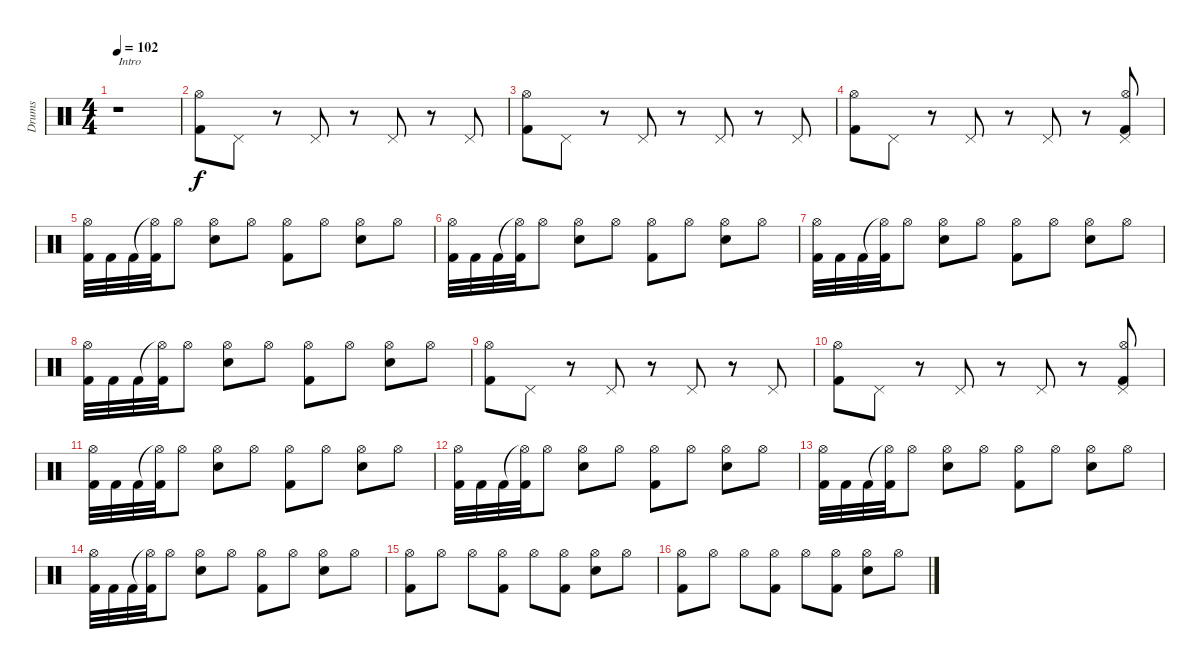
\track ("Drums" "Drums") {instrument percussion}
\staff {score}
\articulation defaults
\ts (4 4)
\tempo 102
\clef neutral
\ks c
r.1{txt "Intro" dy f} |
("Kick (hit) 2" "Hi-Hat (open)").8 "Pedal Hi-Hat (hit)".8 r.8 "Pedal Hi-Hat (hit)".8 r.8 "Pedal Hi-Hat (hit)".8 r.8 "Pedal Hi-Hat (hit)".8 |
("Kick (hit) 2" "Hi-Hat (open)").8 "Pedal Hi-Hat (hit)".8 r.8 "Pedal Hi-Hat (hit)".8 r.8 "Pedal Hi-Hat (hit)".8 r.8 "Pedal Hi-Hat (hit)".8 |
("Kick (hit) 2" "Hi-Hat (open)").8 "Pedal Hi-Hat (hit)".8 r.8 "Pedal Hi-Hat (hit)".8 r.8 "Pedal Hi-Hat (hit)".8 r.8 ("Kick (hit) 2" "Hi-Hat (open)" "Pedal Hi-Hat (hit)").8 |
("Hi-Hat (open)" "Kick (hit) 2").32 "Kick (hit) 2".32 "Kick (hit) 2".32 ("Hi-Hat (open)"{t} "Kick (hit) 2").32 "Hi-Hat (open)".8 ("Hi-Hat (open)" "Snare (hit) 2").8 "Hi-Hat (open)".8 ("Hi-Hat (open)" "Kick (hit) 2").8 "Hi-Hat (open)".8 ("Hi-Hat (open)" "Snare (hit) 2").8 "Hi-Hat (open)".8 |
("Hi-Hat (open)" "Kick (hit) 2").32 "Kick (hit) 2".32 "Kick (hit) 2".32 ("Hi-Hat (open)"{t} "Kick (hit) 2").32 "Hi-Hat (open)".8 ("Hi-Hat (open)" "Snare (hit) 2").8 "Hi-Hat (open)".8 ("Hi-Hat (open)" "Kick (hit) 2").8 "Hi-Hat (open)".8 ("Hi-Hat (open)" "Snare (hit) 2").8 "Hi-Hat (open)".8 |
("Hi-Hat (open)" "Kick (hit) 2").32 "Kick (hit) 2".32 "Kick (hit) 2".32 ("Hi-Hat (open)"{t} "Kick (hit) 2").32 "Hi-Hat (open)".8 ("Hi-Hat (open)" "Snare (hit) 2").8 "Hi-Hat (open)".8 ("Hi-Hat (open)" "Kick (hit) 2").8 "Hi-Hat (open)".8 ("Hi-Hat (open)" "Snare (hit) 2").8 "Hi-Hat (open)".8 |
("Hi-Hat (open)" "Kick (hit) 2").32 "Kick (hit) 2".32 "Kick (hit) 2".32 ("Hi-Hat (open)"{t} "Kick (hit) 2").32 "Hi-Hat (open)".8 ("Hi-Hat (open)" "Snare (hit) 2").8 "Hi-Hat (open)".8 ("Hi-Hat (open)" "Kick (hit) 2").8 "Hi-Hat (open)".8 ("Hi-Hat (open)" "Snare (hit) 2").8 "Hi-Hat (open)".8 |
("Kick (hit) 2" "Hi-Hat (open)").8 "Pedal Hi-Hat (hit)".8 r.8 "Pedal Hi-Hat (hit)".8 r.8 "Pedal Hi-Hat (hit)".8 r.8 "Pedal Hi-Hat (hit)".8 |
("Kick (hit) 2" "Hi-Hat (open)").8 "Pedal Hi-Hat (hit)".8 r.8 "Pedal Hi-Hat (hit)".8 r.8 "Pedal Hi-Hat (hit)".8 r.8 ("Kick (hit) 2" "Hi-Hat (open)" "Pedal Hi-Hat (hit)").8 |
("Hi-Hat (open)" "Kick (hit) 2").32 "Kick (hit) 2".32 "Kick (hit) 2".32 ("Hi-Hat (open)"{t} "Kick (hit) 2").32 "Hi-Hat (open)".8 ("Hi-Hat (open)" "Snare (hit) 2").8 "Hi-Hat (open)".8 ("Hi-Hat (open)" "Kick (hit) 2").8 "Hi-Hat (open)".8 ("Hi-Hat (open)" "Snare (hit) 2").8 "Hi-Hat (open)".8 |
("Hi-Hat (open)" "Kick (hit) 2").32 "Kick (hit) 2".32 "Kick (hit) 2".32 ("Hi-Hat (open)"{t} "Kick (hit) 2").32 "Hi-Hat (open)".8 ("Hi-Hat (open)" "Snare (hit) 2").8 "Hi-Hat (open)".8 ("Hi-Hat (open)" "Kick (hit) 2").8 "Hi-Hat (open)".8 ("Hi-Hat (open)" "Snare (hit) 2").8 "Hi-Hat (open)".8 |
("Hi-Hat (open)" "Kick (hit) 2").32 "Kick (hit) 2".32 "Kick (hit) 2".32 ("Hi-Hat (open)"{t} "Kick (hit) 2").32 "Hi-Hat (open)".8 ("Hi-Hat (open)" "Snare (hit) 2").8 "Hi-Hat (open)".8 ("Hi-Hat (open)" "Kick (hit) 2").8 "Hi-Hat (open)".8 ("Hi-Hat (open)" "Snare (hit) 2").8 "Hi-Hat (open)".8 |
("Hi-Hat (open)" "Kick (hit) 2").32 "Kick (hit) 2".32 "Kick (hit) 2".32 ("Hi-Hat (open)"{t} "Kick (hit) 2").32 "Hi-Hat (open)".8 ("Hi-Hat (open)" "Snare (hit) 2").8 "Hi-Hat (open)".8 ("Hi-Hat (open)" "Kick (hit) 2").8 "Hi-Hat (open)".8 ("Hi-Hat (open)" "Snare (hit) 2").8 "Hi-Hat (open)".8 |
("Hi-Hat (open)" "Kick (hit) 2").8 "Hi-Hat (open)".8 "Hi-Hat (open)".8 ("Hi-Hat (open)" "Kick (hit) 2").8 "Hi-Hat (open)".8 ("Hi-Hat (open)" "Kick (hit) 2").8 ("Hi-Hat (open)" "Snare (hit) 2").8 "Hi-Hat (open)".8 |
("Hi-Hat (open)" "Kick (hit) 2").8 "Hi-Hat (open)".8 "Hi-Hat (open)".8 ("Hi-Hat (open)" "Kick (hit) 2").8 "Hi-Hat (open)".8 ("Hi-Hat (open)" "Kick (hit) 2").8 ("Hi-Hat (open)" "Snare (hit) 2").8 "Hi-Hat (open)".8
